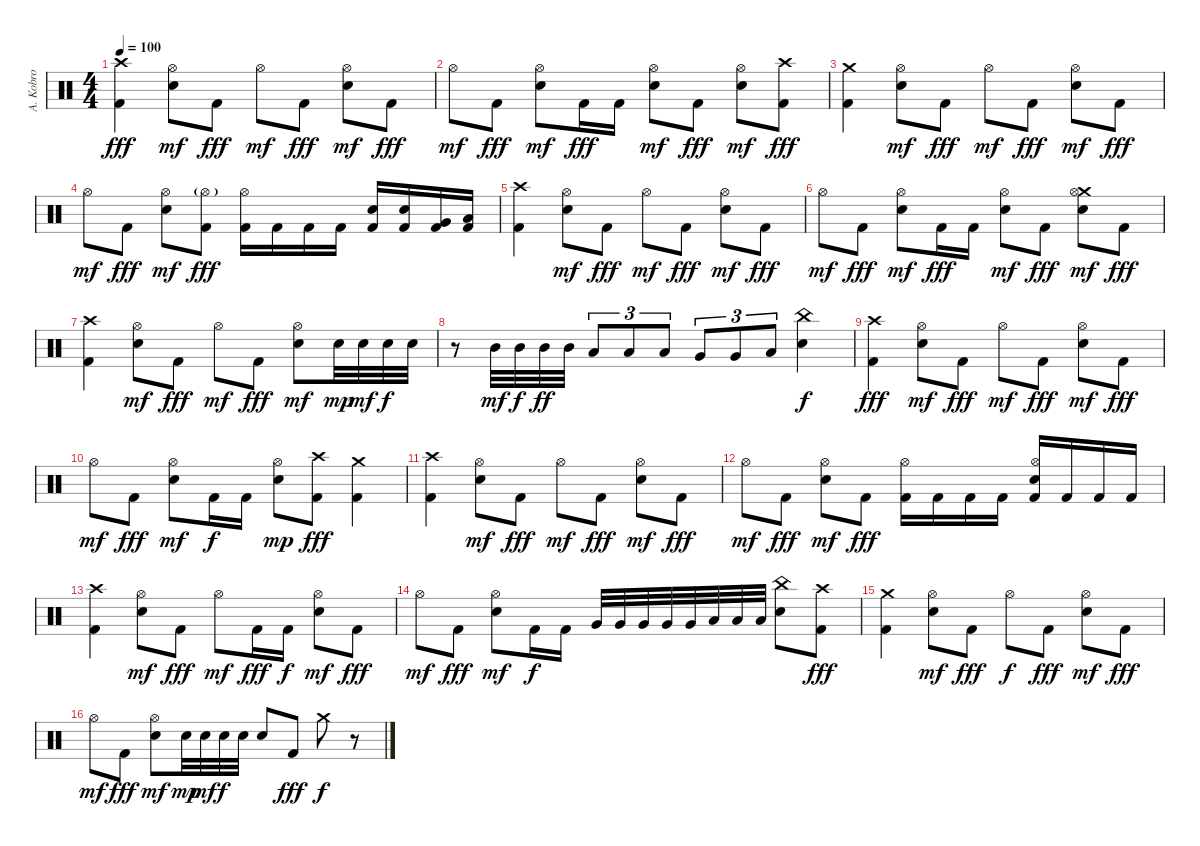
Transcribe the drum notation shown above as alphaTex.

\track ("A. Kobro" "A. Kobro") {instrument percussion}
\staff {score}
\articulation defaults
\ts (4 4)
\tempo 100
\tempo 140
\tempo 100
\clef neutral
\ks c
("Crash high (hit)" "Kick (hit) 2").4{dy fff} ("Hi-Hat (open)" "Electric Snare (hit)").8{dy mf} "Kick (hit) 2".8{dy fff} "Hi-Hat (open)".8{dy mf} "Kick (hit) 2".8{dy fff} ("Hi-Hat (open)" "Electric Snare (hit)").8{dy mf} "Kick (hit) 2".8{dy fff} |
"Hi-Hat (open)".8{dy mf} "Kick (hit) 2".8{dy fff} ("Hi-Hat (open)" "Electric Snare (hit)").8{dy mf} "Kick (hit) 2".16{dy fff} "Kick (hit) 2".16 ("Hi-Hat (open)" "Electric Snare (hit)").8{dy mf} "Kick (hit) 2".8{dy fff} ("Hi-Hat (open)" "Electric Snare (hit)").8{dy mf} ("Crash high (hit)" "Kick (hit) 2").8{dy fff} |
("Crash medium (hit)" "Kick (hit) 2").4 ("Hi-Hat (open)" "Electric Snare (hit)").8{dy mf} "Kick (hit) 2".8{dy fff} "Hi-Hat (open)".8{dy mf} "Kick (hit) 2".8{dy fff} ("Hi-Hat (open)" "Electric Snare (hit)").8{dy mf} "Kick (hit) 2".8{dy fff} |
"Hi-Hat (open)".8{dy mf} "Kick (hit) 2".8{dy fff} ("Hi-Hat (open)" "Electric Snare (hit)").8{dy mf} ("Hi-Hat (open)"{g} "Kick (hit) 2").8{dy fff} ("Hi-Hat (open)" "Kick (hit) 2").16 "Kick (hit) 2".16 "Kick (hit) 2".16 "Kick (hit) 2".16 ("Electric Snare (hit)" "Kick (hit) 2").16 ("Electric Snare (hit)" "Kick (hit) 2").16 ("Very Low Tom (hit)" "Kick (hit) 2").16 ("Low Floor Tom (hit)" "Kick (hit) 2").16 |
("Crash high (hit)" "Kick (hit) 2").4 ("Hi-Hat (open)" "Electric Snare (hit)").8{dy mf} "Kick (hit) 2".8{dy fff} "Hi-Hat (open)".8{dy mf} "Kick (hit) 2".8{dy fff} ("Hi-Hat (open)" "Electric Snare (hit)").8{dy mf} "Kick (hit) 2".8{dy fff} |
"Hi-Hat (open)".8{dy mf} "Kick (hit) 2".8{dy fff} ("Hi-Hat (open)" "Electric Snare (hit)").8{dy mf} "Kick (hit) 2".16{dy fff} "Kick (hit) 2".16 ("Hi-Hat (open)" "Electric Snare (hit)").8{dy mf} "Kick (hit) 2".8{dy fff} ("Crash medium (hit)" "Hi-Hat (open)" "Electric Snare (hit)").8{dy mf} "Kick (hit) 2".8{dy fff} |
("Crash high (hit)" "Kick (hit) 2").4 ("Hi-Hat (open)" "Electric Snare (hit)").8{dy mf} "Kick (hit) 2".8{dy fff} "Hi-Hat (open)".8{dy mf} "Kick (hit) 2".8{dy fff} ("Hi-Hat (open)" "Electric Snare (hit)").8{dy mf} "Electric Snare (hit)".32{dy mp} "Electric Snare (hit)".32{dy mf} "Electric Snare (hit)".32{dy f} "Electric Snare (hit)".32 |
r.8 "Mid Tom (hit)".32{dy mf} "Mid Tom (hit)".32{dy f} "Mid Tom (hit)".32{dy ff} "Mid Tom (hit)".32 "Low Tom (hit)".8{tu (3 2)} "Low Tom (hit)".8{tu (3 2)} "Low Tom (hit)".8{tu (3 2)} "Very Low Tom (hit)".8{tu (3 2)} "Very Low Tom (hit)".8{tu (3 2)} "Low Floor Tom (hit)".8{tu (3 2)} ("China (hit)" "Electric Snare (hit)").4{dy f} |
("Crash high (hit)" "Kick (hit) 2").4{dy fff} ("Hi-Hat (open)" "Electric Snare (hit)").8{dy mf} "Kick (hit) 2".8{dy fff} "Hi-Hat (open)".8{dy mf} "Kick (hit) 2".8{dy fff} ("Hi-Hat (open)" "Electric Snare (hit)").8{dy mf} "Kick (hit) 2".8{dy fff} |
"Hi-Hat (open)".8{dy mf} "Kick (hit) 2".8{dy fff} ("Hi-Hat (open)" "Electric Snare (hit)").8{dy mf} "Kick (hit) 2".16{dy f} "Kick (hit) 2".16 ("Hi-Hat (open)" "Electric Snare (hit)").8{dy mp} ("Crash high (hit)" "Kick (hit) 2").8{dy fff} ("Crash medium (hit)" "Kick (hit) 2").4 |
("Crash high (hit)" "Kick (hit) 2").4 ("Hi-Hat (open)" "Electric Snare (hit)").8{dy mf} "Kick (hit) 2".8{dy fff} "Hi-Hat (open)".8{dy mf} "Kick (hit) 2".8{dy fff} ("Hi-Hat (open)" "Electric Snare (hit)").8{dy mf} "Kick (hit) 2".8{dy fff} |
"Hi-Hat (open)".8{dy mf} "Kick (hit) 2".8{dy fff} ("Hi-Hat (open)" "Electric Snare (hit)").8{dy mf} "Kick (hit) 2".8{dy fff} ("Hi-Hat (open)" "Kick (hit) 2").16 "Kick (hit) 2".16 "Kick (hit) 2".16 "Kick (hit) 2".16 ("Hi-Hat (open)" "Electric Snare (hit)" "Kick (hit) 2").16 "Kick (hit) 2".16 "Kick (hit) 2".16 "Kick (hit) 2".16 |
("Crash high (hit)" "Kick (hit) 2").4 ("Hi-Hat (open)" "Electric Snare (hit)").8{dy mf} "Kick (hit) 2".8{dy fff} "Hi-Hat (open)".8{dy mf} "Kick (hit) 2".16{dy fff} "Kick (hit) 2".16{dy f} ("Hi-Hat (open)" "Electric Snare (hit)").8{dy mf} "Kick (hit) 2".8{dy fff} |
"Hi-Hat (open)".8{dy mf} "Kick (hit) 2".8{dy fff} ("Hi-Hat (open)" "Electric Snare (hit)").8{dy mf} "Kick (hit) 2".16{dy f} "Kick (hit) 2".16 "Very Low Tom (hit)".32 "Very Low Tom (hit)".32 "Very Low Tom (hit)".32 "Very Low Tom (hit)".32 "Very Low Tom (hit)".32 "Low Floor Tom (hit)".32 "Low Floor Tom (hit)".32 "Low Floor Tom (hit)".32 ("China (hit)" "Electric Snare (hit)").8 ("Crash high (hit)" "Kick (hit) 2").8{dy fff} |
("Crash medium (hit)" "Kick (hit) 2").4 ("Hi-Hat (open)" "Electric Snare (hit)").8{dy mf} "Kick (hit) 2".8{dy fff} "Hi-Hat (open)".8{dy f} "Kick (hit) 2".8{dy fff} ("Hi-Hat (open)" "Electric Snare (hit)").8{dy mf} "Kick (hit) 2".8{dy fff} |
"Hi-Hat (open)".8{dy mf} "Kick (hit) 2".8{dy fff} ("Hi-Hat (open)" "Electric Snare (hit)").8{dy mf} "Electric Snare (hit)".32{dy mp} "Electric Snare (hit)".32{dy mf} "Electric Snare (hit)".32{dy f} "Electric Snare (hit)".32 "Electric Snare (hit)".8 "Kick (hit) 2".8{dy fff} "Crash medium (hit)".8{dy f} r.8{volume 0}
